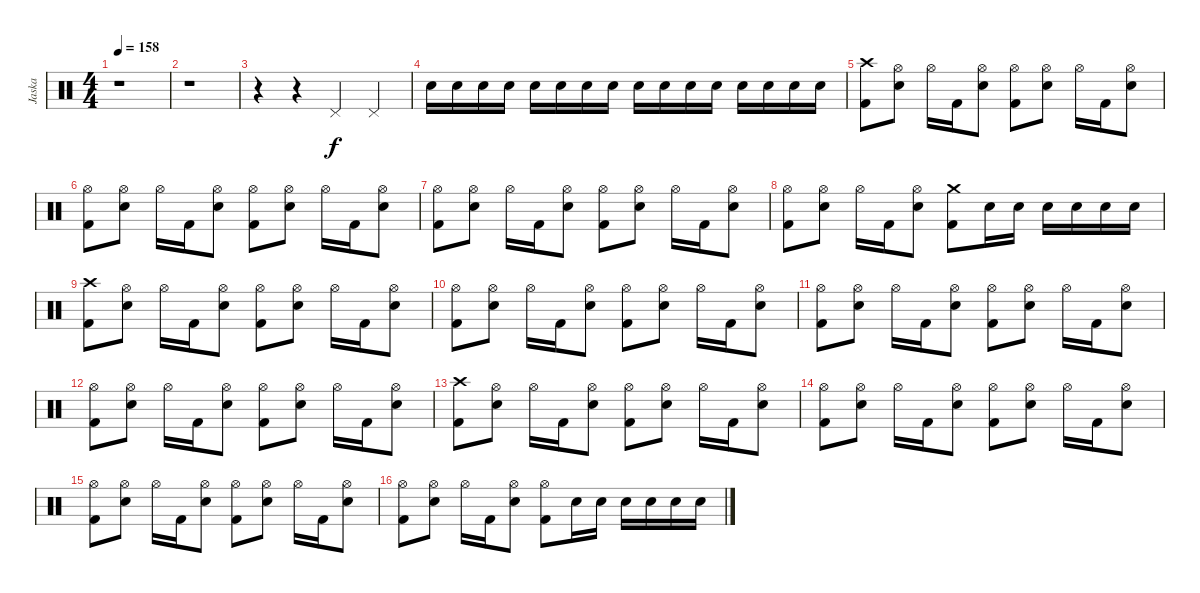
\track ("Jaska" "Jaska") {instrument percussion}
\staff {score}
\articulation defaults
\ts (4 4)
\tempo 158
\clef neutral
\ks c
r.1{dy f} |
r.1 |
r.4 r.4 "Pedal Hi-Hat (hit)".4 "Pedal Hi-Hat (hit)".4 |
"Electric Snare (hit)".16 "Electric Snare (hit)".16 "Electric Snare (hit)".16 "Electric Snare (hit)".16 "Electric Snare (hit)".16 "Electric Snare (hit)".16 "Electric Snare (hit)".16 "Electric Snare (hit)".16 "Electric Snare (hit)".16 "Electric Snare (hit)".16 "Electric Snare (hit)".16 "Electric Snare (hit)".16 "Electric Snare (hit)".16 "Electric Snare (hit)".16 "Electric Snare (hit)".16 "Electric Snare (hit)".16 |
("Crash high (hit)" "Kick (hit) 2").8 ("Hi-Hat (open)" "Electric Snare (hit)").8 "Hi-Hat (open)".16 "Kick (hit) 2".16 ("Hi-Hat (open)" "Electric Snare (hit)").8 ("Hi-Hat (open)" "Kick (hit) 2").8 ("Hi-Hat (open)" "Electric Snare (hit)").8 "Hi-Hat (open)".16 "Kick (hit) 2".16 ("Hi-Hat (open)" "Electric Snare (hit)").8 |
("Hi-Hat (open)" "Kick (hit) 2").8 ("Hi-Hat (open)" "Electric Snare (hit)").8 "Hi-Hat (open)".16 "Kick (hit) 2".16 ("Hi-Hat (open)" "Electric Snare (hit)").8 ("Hi-Hat (open)" "Kick (hit) 2").8 ("Hi-Hat (open)" "Electric Snare (hit)").8 "Hi-Hat (open)".16 "Kick (hit) 2".16 ("Hi-Hat (open)" "Electric Snare (hit)").8 |
("Hi-Hat (open)" "Kick (hit) 2").8 ("Hi-Hat (open)" "Electric Snare (hit)").8 "Hi-Hat (open)".16 "Kick (hit) 2".16 ("Hi-Hat (open)" "Electric Snare (hit)").8 ("Hi-Hat (open)" "Kick (hit) 2").8 ("Hi-Hat (open)" "Electric Snare (hit)").8 "Hi-Hat (open)".16 "Kick (hit) 2".16 ("Hi-Hat (open)" "Electric Snare (hit)").8 |
("Hi-Hat (open)" "Kick (hit) 2").8 ("Hi-Hat (open)" "Electric Snare (hit)").8 "Hi-Hat (open)".16 "Kick (hit) 2".16 ("Hi-Hat (open)" "Electric Snare (hit)").8 ("Crash medium (hit)" "Kick (hit) 2").8 "Electric Snare (hit)".16 "Electric Snare (hit)".16 "Electric Snare (hit)".16 "Electric Snare (hit)".16 "Electric Snare (hit)".16 "Electric Snare (hit)".16 |
("Crash high (hit)" "Kick (hit) 2").8 ("Hi-Hat (open)" "Electric Snare (hit)").8 "Hi-Hat (open)".16 "Kick (hit) 2".16 ("Hi-Hat (open)" "Electric Snare (hit)").8 ("Hi-Hat (open)" "Kick (hit) 2").8 ("Hi-Hat (open)" "Electric Snare (hit)").8 "Hi-Hat (open)".16 "Kick (hit) 2".16 ("Hi-Hat (open)" "Electric Snare (hit)").8 |
("Hi-Hat (open)" "Kick (hit) 2").8 ("Hi-Hat (open)" "Electric Snare (hit)").8 "Hi-Hat (open)".16 "Kick (hit) 2".16 ("Hi-Hat (open)" "Electric Snare (hit)").8 ("Hi-Hat (open)" "Kick (hit) 2").8 ("Hi-Hat (open)" "Electric Snare (hit)").8 "Hi-Hat (open)".16 "Kick (hit) 2".16 ("Hi-Hat (open)" "Electric Snare (hit)").8 |
("Hi-Hat (open)" "Kick (hit) 2").8 ("Hi-Hat (open)" "Electric Snare (hit)").8 "Hi-Hat (open)".16 "Kick (hit) 2".16 ("Hi-Hat (open)" "Electric Snare (hit)").8 ("Hi-Hat (open)" "Kick (hit) 2").8 ("Hi-Hat (open)" "Electric Snare (hit)").8 "Hi-Hat (open)".16 "Kick (hit) 2".16 ("Hi-Hat (open)" "Electric Snare (hit)").8 |
("Hi-Hat (open)" "Kick (hit) 2").8 ("Hi-Hat (open)" "Electric Snare (hit)").8 "Hi-Hat (open)".16 "Kick (hit) 2".16 ("Hi-Hat (open)" "Electric Snare (hit)").8 ("Hi-Hat (open)" "Kick (hit) 2").8 ("Hi-Hat (open)" "Electric Snare (hit)").8 "Hi-Hat (open)".16 "Kick (hit) 2".16 ("Hi-Hat (open)" "Electric Snare (hit)").8 |
("Crash high (hit)" "Kick (hit) 2").8 ("Hi-Hat (open)" "Electric Snare (hit)").8 "Hi-Hat (open)".16 "Kick (hit) 2".16 ("Hi-Hat (open)" "Electric Snare (hit)").8 ("Hi-Hat (open)" "Kick (hit) 2").8 ("Hi-Hat (open)" "Electric Snare (hit)").8 "Hi-Hat (open)".16 "Kick (hit) 2".16 ("Hi-Hat (open)" "Electric Snare (hit)").8 |
("Hi-Hat (open)" "Kick (hit) 2").8 ("Hi-Hat (open)" "Electric Snare (hit)").8 "Hi-Hat (open)".16 "Kick (hit) 2".16 ("Hi-Hat (open)" "Electric Snare (hit)").8 ("Hi-Hat (open)" "Kick (hit) 2").8 ("Hi-Hat (open)" "Electric Snare (hit)").8 "Hi-Hat (open)".16 "Kick (hit) 2".16 ("Hi-Hat (open)" "Electric Snare (hit)").8 |
("Hi-Hat (open)" "Kick (hit) 2").8 ("Hi-Hat (open)" "Electric Snare (hit)").8 "Hi-Hat (open)".16 "Kick (hit) 2".16 ("Hi-Hat (open)" "Electric Snare (hit)").8 ("Hi-Hat (open)" "Kick (hit) 2").8 ("Hi-Hat (open)" "Electric Snare (hit)").8 "Hi-Hat (open)".16 "Kick (hit) 2".16 ("Hi-Hat (open)" "Electric Snare (hit)").8 |
("Hi-Hat (open)" "Kick (hit) 2").8 ("Hi-Hat (open)" "Electric Snare (hit)").8 "Hi-Hat (open)".16 "Kick (hit) 2".16 ("Hi-Hat (open)" "Electric Snare (hit)").8 ("Hi-Hat (open)" "Kick (hit) 2").8 "Electric Snare (hit)".16 "Electric Snare (hit)".16 "Electric Snare (hit)".16 "Electric Snare (hit)".16 "Electric Snare (hit)".16 "Electric Snare (hit)".16
